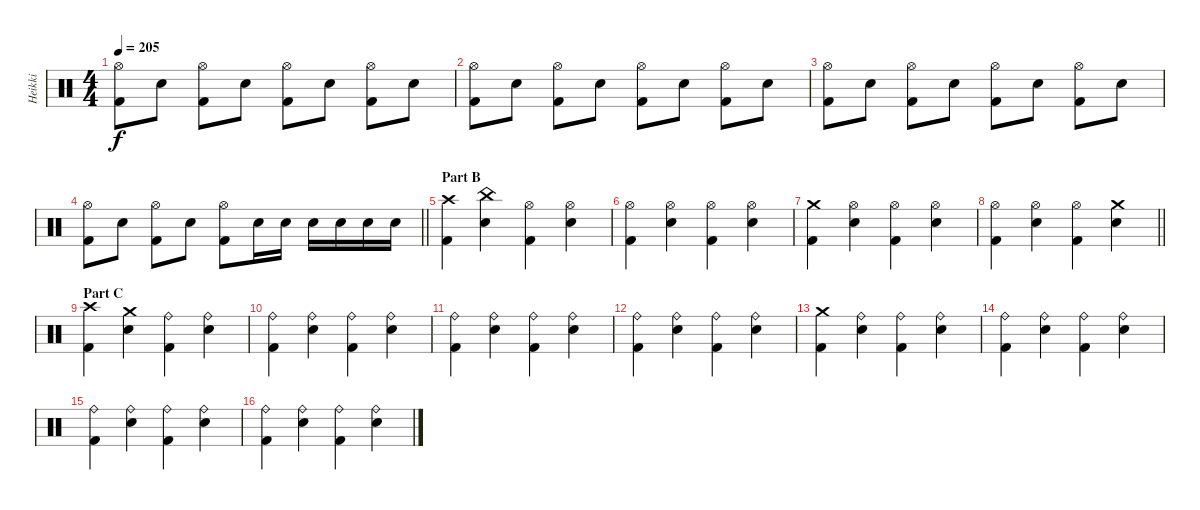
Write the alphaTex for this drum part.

\track ("Heikki" "Heikki") {instrument percussion}
\staff {score}
\articulation defaults
\ts (4 4)
\tempo 205
\clef neutral
\ks c
("Hi-Hat (open)" "Kick (hit) 2").8{dy f} "Electric Snare (hit)".8 ("Hi-Hat (open)" "Kick (hit) 2").8 "Electric Snare (hit)".8 ("Hi-Hat (open)" "Kick (hit) 2").8 "Electric Snare (hit)".8 ("Hi-Hat (open)" "Kick (hit) 2").8 "Electric Snare (hit)".8 |
("Hi-Hat (open)" "Kick (hit) 2").8 "Electric Snare (hit)".8 ("Hi-Hat (open)" "Kick (hit) 2").8 "Electric Snare (hit)".8 ("Hi-Hat (open)" "Kick (hit) 2").8 "Electric Snare (hit)".8 ("Hi-Hat (open)" "Kick (hit) 2").8 "Electric Snare (hit)".8 |
("Hi-Hat (open)" "Kick (hit) 2").8 "Electric Snare (hit)".8 ("Hi-Hat (open)" "Kick (hit) 2").8 "Electric Snare (hit)".8 ("Hi-Hat (open)" "Kick (hit) 2").8 "Electric Snare (hit)".8 ("Hi-Hat (open)" "Kick (hit) 2").8 "Electric Snare (hit)".8 |
\barLineRight lightlight
("Hi-Hat (open)" "Kick (hit) 2").8 "Electric Snare (hit)".8 ("Hi-Hat (open)" "Kick (hit) 2").8 "Electric Snare (hit)".8 ("Hi-Hat (open)" "Kick (hit) 2").8 "Electric Snare (hit)".16 "Electric Snare (hit)".16 "Electric Snare (hit)".16 "Electric Snare (hit)".16 "Electric Snare (hit)".16 "Electric Snare (hit)".16 |
\section ("" "Part B")
("Crash high (hit)" "Kick (hit) 2").4 ("China (hit)" "Electric Snare (hit)").4 ("Hi-Hat (open)" "Kick (hit) 2").4 ("Hi-Hat (open)" "Electric Snare (hit)").4 |
("Hi-Hat (open)" "Kick (hit) 2").4 ("Hi-Hat (open)" "Electric Snare (hit)").4 ("Hi-Hat (open)" "Kick (hit) 2").4 ("Hi-Hat (open)" "Electric Snare (hit)").4 |
("Crash medium (hit)" "Kick (hit) 2").4 ("Hi-Hat (open)" "Electric Snare (hit)").4 ("Hi-Hat (open)" "Kick (hit) 2").4 ("Hi-Hat (open)" "Electric Snare (hit)").4 |
\barLineRight lightlight
("Hi-Hat (open)" "Kick (hit) 2").4 ("Hi-Hat (open)" "Electric Snare (hit)").4 ("Hi-Hat (open)" "Kick (hit) 2").4 ("Crash medium (hit)" "Electric Snare (hit)").4 |
\section ("" "Part C")
("Crash high (hit)" "Kick (hit) 2").4 ("Crash medium (hit)" "Electric Snare (hit)").4 ("Ride (bell)" "Kick (hit) 2").4 ("Ride (bell)" "Electric Snare (hit)").4 |
("Ride (bell)" "Kick (hit) 2").4 ("Ride (bell)" "Electric Snare (hit)").4 ("Ride (bell)" "Kick (hit) 2").4 ("Ride (bell)" "Electric Snare (hit)").4 |
("Ride (bell)" "Kick (hit) 2").4 ("Ride (bell)" "Electric Snare (hit)").4 ("Ride (bell)" "Kick (hit) 2").4 ("Ride (bell)" "Electric Snare (hit)").4 |
("Ride (bell)" "Kick (hit) 2").4 ("Ride (bell)" "Electric Snare (hit)").4 ("Ride (bell)" "Kick (hit) 2").4 ("Ride (bell)" "Electric Snare (hit)").4 |
("Crash medium (hit)" "Kick (hit) 2").4 ("Ride (bell)" "Electric Snare (hit)").4 ("Ride (bell)" "Kick (hit) 2").4 ("Ride (bell)" "Electric Snare (hit)").4 |
("Ride (bell)" "Kick (hit) 2").4 ("Ride (bell)" "Electric Snare (hit)").4 ("Ride (bell)" "Kick (hit) 2").4 ("Ride (bell)" "Electric Snare (hit)").4 |
("Ride (bell)" "Kick (hit) 2").4 ("Ride (bell)" "Electric Snare (hit)").4 ("Ride (bell)" "Kick (hit) 2").4 ("Ride (bell)" "Electric Snare (hit)").4 |
("Ride (bell)" "Kick (hit) 2").4 ("Ride (bell)" "Electric Snare (hit)").4 ("Ride (bell)" "Kick (hit) 2").4 ("Ride (bell)" "Electric Snare (hit)").4
